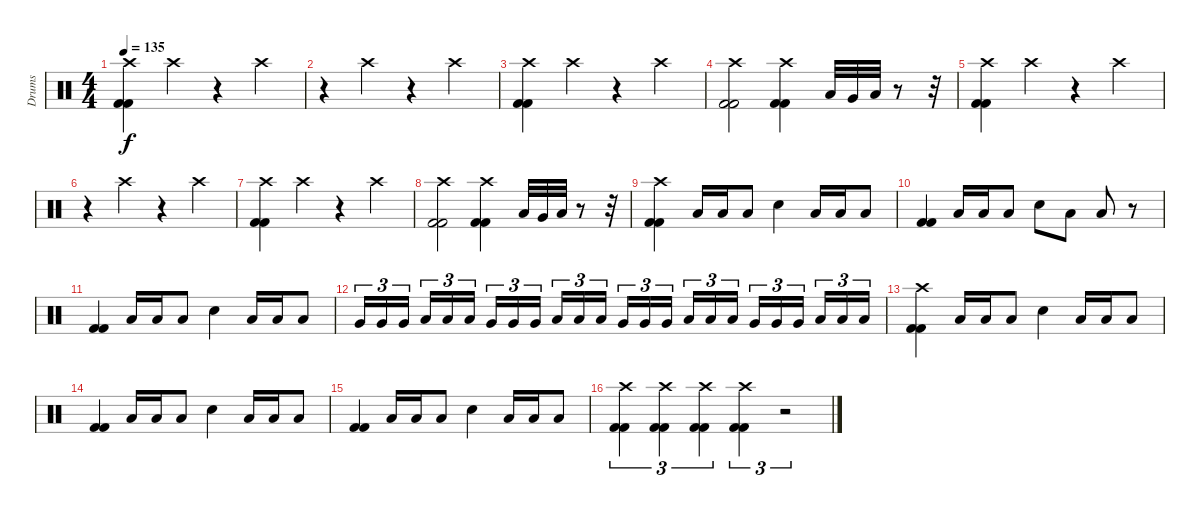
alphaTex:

\track ("Drums" "Drums") {instrument percussion}
\staff {score}
\articulation defaults
\ts (4 4)
\tempo 135
\clef neutral
\ks c
("Crash high (hit)" "Kick (hit) 2" "Kick (hit) 2").4{dy f} "Crash high (hit)".4 r.4 "Crash high (hit)".4 |
r.4 "Crash high (hit)".4 r.4 "Crash high (hit)".4 |
("Crash high (hit)" "Kick (hit) 2" "Kick (hit) 2").4 "Crash high (hit)".4 r.4 "Crash high (hit)".4 |
("Crash high (hit)" "Kick (hit) 2" "Kick (hit) 2").2 ("Crash high (hit)" "Kick (hit) 2" "Kick (hit) 2").4 "Low Tom (hit)".32 "Very Low Tom (hit)".32 "Low Floor Tom (hit)".32 r.8 r.32 |
("Crash high (hit)" "Kick (hit) 2" "Kick (hit) 2").4 "Crash high (hit)".4 r.4 "Crash high (hit)".4 |
r.4 "Crash high (hit)".4 r.4 "Crash high (hit)".4 |
("Crash high (hit)" "Kick (hit) 2" "Kick (hit) 2").4 "Crash high (hit)".4 r.4 "Crash high (hit)".4 |
("Crash high (hit)" "Kick (hit) 2" "Kick (hit) 2").2 ("Crash high (hit)" "Kick (hit) 2" "Kick (hit) 2").4 "Low Tom (hit)".32 "Very Low Tom (hit)".32 "Low Floor Tom (hit)".32 r.8 r.32 |
("Crash high (hit)" "Kick (hit) 2" "Kick (hit) 2").4 "Low Floor Tom (hit)".16 "Low Floor Tom (hit)".16 "Low Floor Tom (hit)".8 "Electric Snare (hit)".4 "Low Floor Tom (hit)".16 "Low Floor Tom (hit)".16 "Low Floor Tom (hit)".8 |
("Kick (hit) 2" "Kick (hit) 2").4 "Low Floor Tom (hit)".16 "Low Floor Tom (hit)".16 "Low Floor Tom (hit)".8 "Electric Snare (hit)".8 "Low Floor Tom (hit)".8 "Low Floor Tom (hit)".8 r.8 |
("Kick (hit) 2" "Kick (hit) 2").4 "Low Floor Tom (hit)".16 "Low Floor Tom (hit)".16 "Low Floor Tom (hit)".8 "Electric Snare (hit)".4 "Low Floor Tom (hit)".16 "Low Floor Tom (hit)".16 "Low Floor Tom (hit)".8 |
"Very Low Tom (hit)".16{tu (3 2)} "Very Low Tom (hit)".16{tu (3 2)} "Very Low Tom (hit)".16{tu (3 2)} "Low Floor Tom (hit)".16{tu (3 2)} "Low Floor Tom (hit)".16{tu (3 2)} "Low Floor Tom (hit)".16{tu (3 2)} "Very Low Tom (hit)".16{tu (3 2)} "Very Low Tom (hit)".16{tu (3 2)} "Very Low Tom (hit)".16{tu (3 2)} "Low Floor Tom (hit)".16{tu (3 2)} "Low Floor Tom (hit)".16{tu (3 2)} "Low Floor Tom (hit)".16{tu (3 2)} "Very Low Tom (hit)".16{tu (3 2)} "Very Low Tom (hit)".16{tu (3 2)} "Very Low Tom (hit)".16{tu (3 2)} "Low Floor Tom (hit)".16{tu (3 2)} "Low Floor Tom (hit)".16{tu (3 2)} "Low Floor Tom (hit)".16{tu (3 2)} "Very Low Tom (hit)".16{tu (3 2)} "Very Low Tom (hit)".16{tu (3 2)} "Very Low Tom (hit)".16{tu (3 2)} "Low Floor Tom (hit)".16{tu (3 2)} "Low Floor Tom (hit)".16{tu (3 2)} "Low Floor Tom (hit)".16{tu (3 2)} |
("Crash high (hit)" "Kick (hit) 2" "Kick (hit) 2").4 "Low Floor Tom (hit)".16 "Low Floor Tom (hit)".16 "Low Floor Tom (hit)".8 "Electric Snare (hit)".4 "Low Floor Tom (hit)".16 "Low Floor Tom (hit)".16 "Low Floor Tom (hit)".8 |
("Kick (hit) 2" "Kick (hit) 2").4 "Low Floor Tom (hit)".16 "Low Floor Tom (hit)".16 "Low Floor Tom (hit)".8 "Electric Snare (hit)".4 "Low Floor Tom (hit)".16 "Low Floor Tom (hit)".16 "Low Floor Tom (hit)".8 |
("Kick (hit) 2" "Kick (hit) 2").4 "Low Floor Tom (hit)".16 "Low Floor Tom (hit)".16 "Low Floor Tom (hit)".8 "Electric Snare (hit)".4 "Low Floor Tom (hit)".16 "Low Floor Tom (hit)".16 "Low Floor Tom (hit)".8 |
("Crash high (hit)" "Kick (hit) 2" "Kick (hit) 2").4{tu (3 2)} ("Crash high (hit)" "Kick (hit) 2" "Kick (hit) 2").4{tu (3 2)} ("Crash high (hit)" "Kick (hit) 2" "Kick (hit) 2").4{tu (3 2)} ("Crash high (hit)" "Kick (hit) 2" "Kick (hit) 2").4{tu (3 2)} r.2{tu (3 2)}
